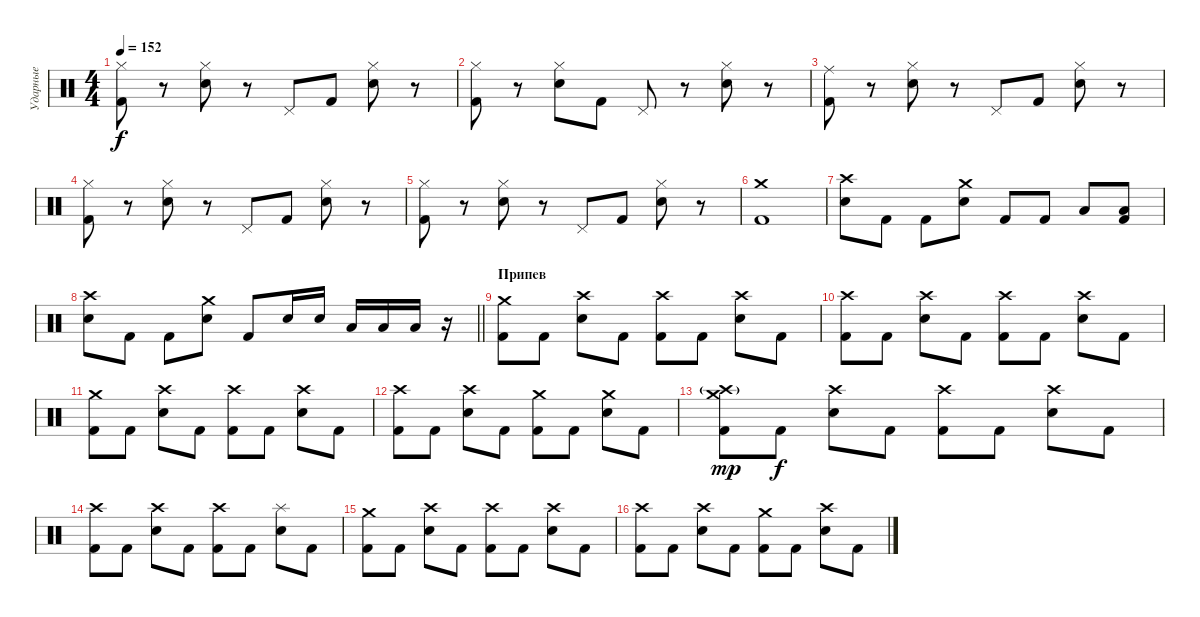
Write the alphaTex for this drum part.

\track ("Ударные" "Ударные") {instrument percussion}
\staff {score}
\articulation defaults
\ts (4 4)
\tempo 152
\clef neutral
\ks c
("Hi-Hat (closed)" "Kick (hit) 2").8{dy f} r.8 ("Hi-Hat (closed)" "Snare (hit) 2").8 r.8 "Pedal Hi-Hat (hit)".8 "Kick (hit) 2".8 ("Hi-Hat (closed)" "Snare (hit) 2").8 r.8 |
("Hi-Hat (closed)" "Kick (hit) 2").8 r.8 ("Hi-Hat (closed)" "Snare (hit) 2").8 "Kick (hit) 2".8 "Pedal Hi-Hat (hit)".8 r.8 ("Hi-Hat (closed)" "Snare (hit) 2").8 r.8 |
("Ride (middle)" "Kick (hit) 2").8 r.8 ("Hi-Hat (closed)" "Snare (hit) 2").8 r.8 "Pedal Hi-Hat (hit)".8 "Kick (hit) 2".8 ("Hi-Hat (closed)" "Snare (hit) 2").8 r.8 |
("Hi-Hat (closed)" "Kick (hit) 2").8 r.8 ("Hi-Hat (closed)" "Snare (hit) 2").8 r.8 "Pedal Hi-Hat (hit)".8 "Kick (hit) 2".8 ("Hi-Hat (closed)" "Snare (hit) 2").8 r.8 |
("Hi-Hat (closed)" "Kick (hit) 2").8 r.8 ("Hi-Hat (closed)" "Snare (hit) 2").8 r.8 "Pedal Hi-Hat (hit)".8 "Kick (hit) 2".8 ("Hi-Hat (closed)" "Snare (hit) 2").8 r.8 |
("Crash medium (hit)" "Kick (hit) 2").1 |
("Crash high (hit)" "Snare (hit) 2").8 "Kick (hit) 2".8 "Kick (hit) 2".8 ("Crash medium (hit)" "Snare (hit) 2").8 "Kick (hit) 2".8 "Kick (hit) 2".8 "Low Floor Tom (hit)".8 ("Low Tom (hit)" "Kick (hit) 2").8 |
\barLineRight lightlight
("Crash high (hit)" "Snare (hit) 2").8 "Kick (hit) 2".8 "Kick (hit) 2".8 ("Crash medium (hit)" "Snare (hit) 2").8 "Kick (hit) 2".8 "Snare (hit) 2".16 "Snare (hit) 2".16 "Low Tom (hit)".16 "Low Tom (hit)".16 "Low Floor Tom (hit)".16 r.16 |
\section ("" "Припев")
("Crash medium (hit)" "Kick (hit) 2").8 "Kick (hit) 2".8 ("Crash high (hit)" "Snare (hit) 2").8 "Kick (hit) 2".8 ("Crash high (hit)" "Kick (hit) 2").8 "Kick (hit) 2".8 ("Crash high (hit)" "Snare (hit) 2").8 "Kick (hit) 2".8 |
("Crash high (hit)" "Kick (hit) 2").8 "Kick (hit) 2".8 ("Crash high (hit)" "Snare (hit) 2").8 "Kick (hit) 2".8 ("Crash high (hit)" "Kick (hit) 2").8 "Kick (hit) 2".8 ("Crash high (hit)" "Snare (hit) 2").8 "Kick (hit) 2".8 |
("Crash medium (hit)" "Kick (hit) 2").8 "Kick (hit) 2".8 ("Crash high (hit)" "Snare (hit) 2").8 "Kick (hit) 2".8 ("Crash high (hit)" "Kick (hit) 2").8 "Kick (hit) 2".8 ("Crash high (hit)" "Snare (hit) 2").8 "Kick (hit) 2".8 |
("Crash high (hit)" "Kick (hit) 2").8 "Kick (hit) 2".8 ("Crash high (hit)" "Snare (hit) 2").8 "Kick (hit) 2".8 ("Crash medium (hit)" "Kick (hit) 2").8 "Kick (hit) 2".8 ("Crash medium (hit)" "Snare (hit) 2").8 "Kick (hit) 2".8 |
("Crash medium (hit)" "Crash high (hit)"{g} "Kick (hit) 2").8{dy mp} "Kick (hit) 2".8{dy f} ("Crash high (hit)" "Snare (hit) 2").8 "Kick (hit) 2".8 ("Crash high (hit)" "Kick (hit) 2").8 "Kick (hit) 2".8 ("Crash high (hit)" "Snare (hit) 2").8 "Kick (hit) 2".8 |
("Crash high (hit)" "Kick (hit) 2").8 "Kick (hit) 2".8 ("Crash high (hit)" "Snare (hit) 2").8 "Kick (hit) 2".8 ("Crash high (hit)" "Kick (hit) 2").8 "Kick (hit) 2".8 ("Splash (hit)" "Snare (hit) 2").8 "Kick (hit) 2".8 |
("Crash medium (hit)" "Kick (hit) 2").8 "Kick (hit) 2".8 ("Crash high (hit)" "Snare (hit) 2").8 "Kick (hit) 2".8 ("Crash high (hit)" "Kick (hit) 2").8 "Kick (hit) 2".8 ("Crash high (hit)" "Snare (hit) 2").8 "Kick (hit) 2".8 |
("Crash high (hit)" "Kick (hit) 2").8 "Kick (hit) 2".8 ("Crash high (hit)" "Snare (hit) 2").8 "Kick (hit) 2".8 ("Crash medium (hit)" "Kick (hit) 2").8 "Kick (hit) 2".8 ("Crash high (hit)" "Snare (hit) 2").8 "Kick (hit) 2".8
